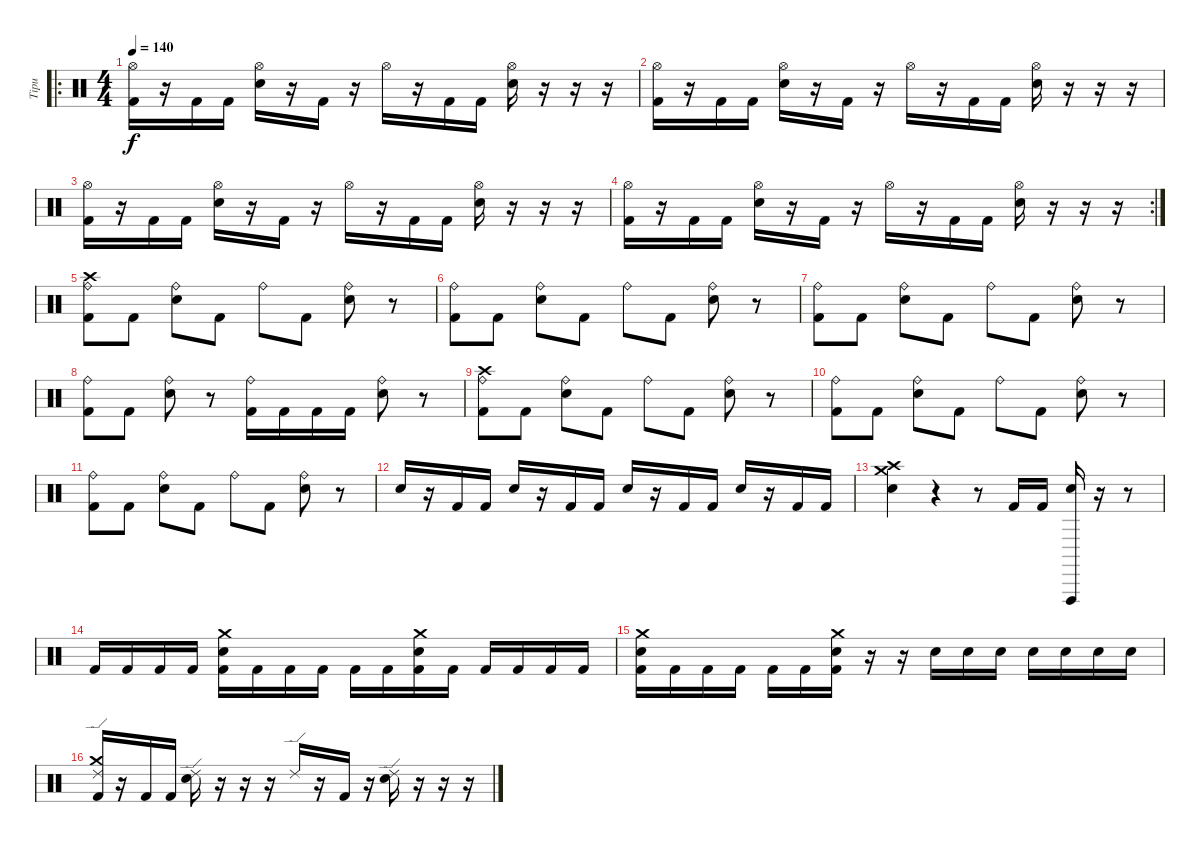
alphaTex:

\track ("Tipu" "Tipu") {instrument percussion}
\staff {score}
\articulation defaults
\ro
\ts (4 4)
\tempo 140
\clef neutral
\ks c
("Hi-Hat (open)" "Kick (hit) 2").16{dy f} r.16 "Kick (hit) 2".16 "Kick (hit) 2".16 ("Hi-Hat (open)" "Electric Snare (hit)").16 r.16 "Kick (hit) 2".16 r.16 "Hi-Hat (open)".16 r.16 "Kick (hit) 2".16 "Kick (hit) 2".16 ("Hi-Hat (open)" "Electric Snare (hit)").16 r.16 r.16 r.16 |
("Hi-Hat (open)" "Kick (hit) 2").16 r.16 "Kick (hit) 2".16 "Kick (hit) 2".16 ("Hi-Hat (open)" "Electric Snare (hit)").16 r.16 "Kick (hit) 2".16 r.16 "Hi-Hat (open)".16 r.16 "Kick (hit) 2".16 "Kick (hit) 2".16 ("Hi-Hat (open)" "Electric Snare (hit)").16 r.16 r.16 r.16 |
("Hi-Hat (open)" "Kick (hit) 2").16 r.16 "Kick (hit) 2".16 "Kick (hit) 2".16 ("Hi-Hat (open)" "Electric Snare (hit)").16 r.16 "Kick (hit) 2".16 r.16 "Hi-Hat (open)".16 r.16 "Kick (hit) 2".16 "Kick (hit) 2".16 ("Hi-Hat (open)" "Electric Snare (hit)").16 r.16 r.16 r.16 |
\rc 2
("Hi-Hat (open)" "Kick (hit) 2").16 r.16 "Kick (hit) 2".16 "Kick (hit) 2".16 ("Hi-Hat (open)" "Electric Snare (hit)").16 r.16 "Kick (hit) 2".16 r.16 "Hi-Hat (open)".16 r.16 "Kick (hit) 2".16 "Kick (hit) 2".16 ("Hi-Hat (open)" "Electric Snare (hit)").16 r.16 r.16 r.16 |
("Crash high (hit)" "Ride (bell)" "Kick (hit) 2").8 "Kick (hit) 2".8 ("Ride (bell)" "Electric Snare (hit)").8 "Kick (hit) 2".8 "Ride (bell)".8 "Kick (hit) 2".8 ("Ride (bell)" "Electric Snare (hit)").8 r.8 |
("Ride (bell)" "Kick (hit) 2").8 "Kick (hit) 2".8 ("Ride (bell)" "Electric Snare (hit)").8 "Kick (hit) 2".8 "Ride (bell)".8 "Kick (hit) 2".8 ("Ride (bell)" "Electric Snare (hit)").8 r.8 |
("Ride (bell)" "Kick (hit) 2").8 "Kick (hit) 2".8 ("Ride (bell)" "Electric Snare (hit)").8 "Kick (hit) 2".8 "Ride (bell)".8 "Kick (hit) 2".8 ("Ride (bell)" "Electric Snare (hit)").8 r.8 |
("Ride (bell)" "Kick (hit) 2").8 "Kick (hit) 2".8 ("Ride (bell)" "Electric Snare (hit)").8 r.8 ("Ride (bell)" "Kick (hit) 2").16 "Kick (hit) 2".16 "Kick (hit) 2".16 "Kick (hit) 2".16 ("Ride (bell)" "Electric Snare (hit)").8 r.8 |
("Crash high (hit)" "Ride (bell)" "Kick (hit) 2").8 "Kick (hit) 2".8 ("Ride (bell)" "Electric Snare (hit)").8 "Kick (hit) 2".8 "Ride (bell)".8 "Kick (hit) 2".8 ("Ride (bell)" "Electric Snare (hit)").8 r.8 |
("Ride (bell)" "Kick (hit) 2").8 "Kick (hit) 2".8 ("Ride (bell)" "Electric Snare (hit)").8 "Kick (hit) 2".8 "Ride (bell)".8 "Kick (hit) 2".8 ("Ride (bell)" "Electric Snare (hit)").8 r.8 |
("Ride (bell)" "Kick (hit) 2").8 "Kick (hit) 2".8 ("Ride (bell)" "Electric Snare (hit)").8 "Kick (hit) 2".8 "Ride (bell)".8 "Kick (hit) 2".8 ("Ride (bell)" "Electric Snare (hit)").8 r.8 |
"Electric Snare (hit)".16 r.16 "Kick (hit) 2".16 "Kick (hit) 2".16 "Electric Snare (hit)".16 r.16 "Kick (hit) 2".16 "Kick (hit) 2".16 "Electric Snare (hit)".16 r.16 "Kick (hit) 2".16 "Kick (hit) 2".16 "Electric Snare (hit)".16 r.16 "Kick (hit) 2".16 "Kick (hit) 2".16 |
("Crash high (hit)" "Electric Snare (hit)" "Crash medium (hit)").4 r.4 r.8 "Kick (hit) 2".16 "Kick (hit) 2".16 ("Electric Snare (hit)" "Vibraslap (hit)").16 r.16 r.8 |
"Kick (hit) 2".16 "Kick (hit) 2".16 "Kick (hit) 2".16 "Kick (hit) 2".16 ("Electric Snare (hit)" "Crash medium (hit)" "Kick (hit) 2").16 "Kick (hit) 2".16 "Kick (hit) 2".16 "Kick (hit) 2".16 "Kick (hit) 2".16 "Kick (hit) 2".16 ("Electric Snare (hit)" "Crash medium (hit)" "Kick (hit) 2").16 "Kick (hit) 2".16 "Kick (hit) 2".16 "Kick (hit) 2".16 "Kick (hit) 2".16 "Kick (hit) 2".16 |
("Electric Snare (hit)" "Crash medium (hit)" "Kick (hit) 2").16 "Kick (hit) 2".16 "Kick (hit) 2".16 "Kick (hit) 2".16 "Kick (hit) 2".16 "Kick (hit) 2".16 ("Electric Snare (hit)" "Crash medium (hit)" "Kick (hit) 2").16 r.16 r.16 "Electric Snare (hit)".16 "Electric Snare (hit)".16 "Electric Snare (hit)".16 "Electric Snare (hit)".16 "Electric Snare (hit)".16 "Electric Snare (hit)".16 "Electric Snare (hit)".16 |
("Kick (hit) 2" "Ride (edge) 2" "Crash medium (hit)").16 r.16 "Kick (hit) 2".16 "Kick (hit) 2".16 ("Electric Snare (hit)" "Ride (edge) 2").16 r.16 r.16 r.16 "Ride (edge) 2".16 r.16 "Kick (hit) 2".16 r.16 ("Electric Snare (hit)" "Ride (edge) 2").16 r.16 r.16 r.16
